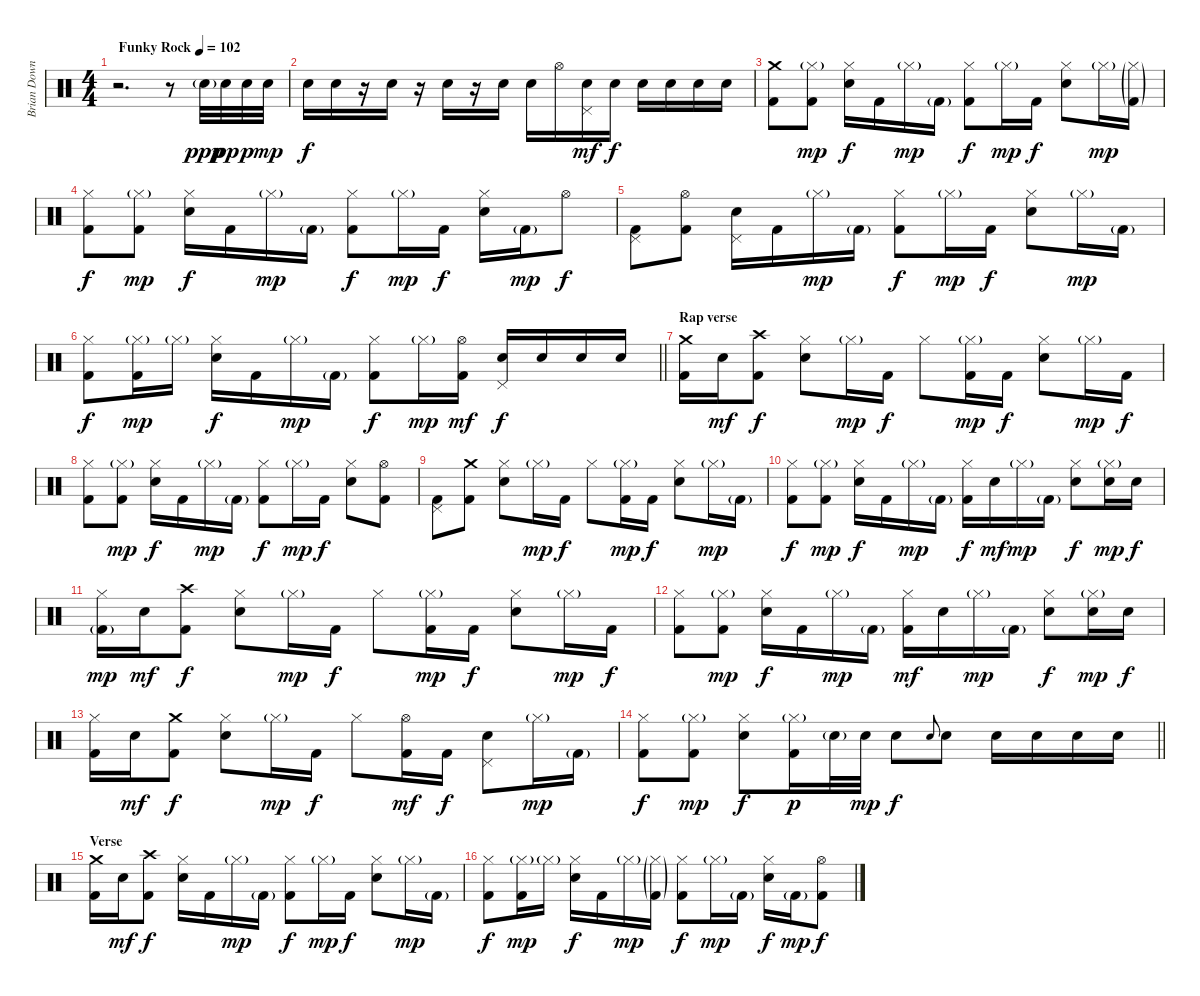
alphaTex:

\track ("Brian Downey" "Brian Down") {instrument percussion}
\staff {score}
\articulation defaults
\ts (4 4)
\tempo (102 "Funky Rock")
\clef neutral
\ks c
r.2{d dy ppp} r.8 "Electric Snare (hit)"{g}.32 "Electric Snare (hit)".32{dy pp} "Electric Snare (hit)".32{dy p} "Electric Snare (hit)".32{dy mp} |
"Electric Snare (hit)".16{dy f} "Electric Snare (hit)".16 r.16 "Electric Snare (hit)".16 r.16 "Electric Snare (hit)".16 r.16 "Electric Snare (hit)".16 "Electric Snare (hit)".16 "Hi-Hat (open)".16 ("Pedal Hi-Hat (hit)" "Electric Snare (hit)").16{dy mf} "Electric Snare (hit)".16{dy f} "Electric Snare (hit)".16 "Electric Snare (hit)".16 "Electric Snare (hit)".16 "Electric Snare (hit)".16 |
("Crash medium (hit)" "Kick (hit) 2").8 ("Hi-Hat (closed)"{g} "Kick (hit) 2").8{dy mp} ("Hi-Hat (closed)" "Electric Snare (hit)").16{dy f} "Kick (hit) 2".16 "Hi-Hat (closed)"{g}.16{dy mp} "Kick (hit) 2"{g}.16 ("Hi-Hat (closed)" "Kick (hit) 2").8{dy f} "Hi-Hat (closed)"{g}.16{dy mp} "Kick (hit) 2".16{dy f} ("Hi-Hat (closed)" "Electric Snare (hit)").8 "Hi-Hat (closed)"{g}.16{dy mp} ("Hi-Hat (closed)"{g} "Kick (hit) 2"{g}).16 |
("Hi-Hat (closed)" "Kick (hit) 2").8{dy f} ("Hi-Hat (closed)"{g} "Kick (hit) 2").8{dy mp} ("Hi-Hat (closed)" "Electric Snare (hit)").16{dy f} "Kick (hit) 2".16 "Hi-Hat (closed)"{g}.16{dy mp} "Kick (hit) 2"{g}.16 ("Hi-Hat (closed)" "Kick (hit) 2").8{dy f} "Hi-Hat (closed)"{g}.16{dy mp} "Kick (hit) 2".16{dy f} ("Hi-Hat (closed)" "Electric Snare (hit)").16 "Kick (hit) 2"{g}.16{dy mp} "Hi-Hat (open)".8{dy f} |
("Pedal Hi-Hat (hit)" "Kick (hit) 2").8 ("Hi-Hat (open)" "Kick (hit) 2").8 ("Pedal Hi-Hat (hit)" "Electric Snare (hit)").16 "Kick (hit) 2".16 "Hi-Hat (closed)"{g}.16{dy mp} "Kick (hit) 2"{g}.16 ("Hi-Hat (closed)" "Kick (hit) 2").8{dy f} "Hi-Hat (closed)"{g}.16{dy mp} "Kick (hit) 2".16{dy f} ("Hi-Hat (closed)" "Electric Snare (hit)").8 "Hi-Hat (closed)"{g}.16{dy mp} "Kick (hit) 2"{g}.16 |
\barLineRight lightlight
("Hi-Hat (closed)" "Kick (hit) 2").8{dy f} ("Hi-Hat (closed)"{g} "Kick (hit) 2").16{dy mp} "Hi-Hat (closed)"{g}.16 ("Hi-Hat (closed)" "Electric Snare (hit)").16{dy f} "Kick (hit) 2".16 "Hi-Hat (closed)"{g}.16{dy mp} "Kick (hit) 2"{g}.16 ("Hi-Hat (closed)" "Kick (hit) 2").8{dy f} "Hi-Hat (closed)"{g}.16{dy mp} ("Hi-Hat (open)" "Kick (hit) 2").16{dy mf} ("Pedal Hi-Hat (hit)" "Electric Snare (hit)").16{dy f} "Electric Snare (hit)".16 "Electric Snare (hit)".16 "Electric Snare (hit)".16 |
\section ("" "Rap verse")
("Crash medium (hit)" "Kick (hit) 2").16 "Electric Snare (hit)".16{dy mf} ("Crash high (hit)" "Kick (hit) 2").8{dy f} ("Hi-Hat (closed)" "Electric Snare (hit)").8 "Hi-Hat (closed)"{g}.16{dy mp} "Kick (hit) 2".16{dy f} "Hi-Hat (closed)".8 ("Hi-Hat (closed)"{g} "Kick (hit) 2").16{dy mp} "Kick (hit) 2".16{dy f} ("Hi-Hat (closed)" "Electric Snare (hit)").8 "Hi-Hat (closed)"{g}.16{dy mp} "Kick (hit) 2".16{dy f} |
("Hi-Hat (closed)" "Kick (hit) 2").8 ("Hi-Hat (closed)"{g} "Kick (hit) 2").8{dy mp} ("Hi-Hat (closed)" "Electric Snare (hit)").16{dy f} "Kick (hit) 2".16 "Hi-Hat (closed)"{g}.16{dy mp} "Kick (hit) 2"{g}.16 ("Hi-Hat (closed)" "Kick (hit) 2").8{dy f} "Hi-Hat (closed)"{g}.16{dy mp} "Kick (hit) 2".16{dy f} ("Hi-Hat (closed)" "Electric Snare (hit)").8 ("Hi-Hat (open)" "Kick (hit) 2").8 |
("Pedal Hi-Hat (hit)" "Kick (hit) 2").8 ("Crash medium (hit)" "Kick (hit) 2").8 ("Hi-Hat (closed)" "Electric Snare (hit)").8 "Hi-Hat (closed)"{g}.16{dy mp} "Kick (hit) 2".16{dy f} "Hi-Hat (closed)".8 ("Hi-Hat (closed)"{g} "Kick (hit) 2").16{dy mp} "Kick (hit) 2".16{dy f} ("Hi-Hat (closed)" "Electric Snare (hit)").8 "Hi-Hat (closed)"{g}.16{dy mp} "Kick (hit) 2"{g}.16 |
("Hi-Hat (closed)" "Kick (hit) 2").8{dy f} ("Hi-Hat (closed)"{g} "Kick (hit) 2").8{dy mp} ("Hi-Hat (closed)" "Electric Snare (hit)").16{dy f} "Kick (hit) 2".16 "Hi-Hat (closed)"{g}.16{dy mp} "Kick (hit) 2"{g}.16 ("Hi-Hat (closed)" "Kick (hit) 2").16{dy f} "Electric Snare (hit)".16{dy mf} "Hi-Hat (closed)"{g}.16{dy mp} "Kick (hit) 2"{g}.16 ("Hi-Hat (closed)" "Electric Snare (hit)").8{dy f} ("Hi-Hat (closed)"{g} "Electric Snare (hit)").16{dy mp} "Electric Snare (hit)".16{dy f} |
("Hi-Hat (closed)" "Kick (hit) 2"{g}).16{dy mp} "Electric Snare (hit)".16{dy mf} ("Crash high (hit)" "Kick (hit) 2").8{dy f} ("Hi-Hat (closed)" "Electric Snare (hit)").8 "Hi-Hat (closed)"{g}.16{dy mp} "Kick (hit) 2".16{dy f} "Hi-Hat (closed)".8 ("Hi-Hat (closed)"{g} "Kick (hit) 2").16{dy mp} "Kick (hit) 2".16{dy f} ("Hi-Hat (closed)" "Electric Snare (hit)").8 "Hi-Hat (closed)"{g}.16{dy mp} "Kick (hit) 2".16{dy f} |
("Hi-Hat (closed)" "Kick (hit) 2").8 ("Hi-Hat (closed)"{g} "Kick (hit) 2").8{dy mp} ("Hi-Hat (closed)" "Electric Snare (hit)").16{dy f} "Kick (hit) 2".16 "Hi-Hat (closed)"{g}.16{dy mp} "Kick (hit) 2"{g}.16 ("Hi-Hat (closed)" "Kick (hit) 2").16{dy mf} "Electric Snare (hit)".16 "Hi-Hat (closed)"{g}.16{dy mp} "Kick (hit) 2"{g}.16 ("Hi-Hat (closed)" "Electric Snare (hit)").8{dy f} ("Hi-Hat (closed)"{g} "Electric Snare (hit)").16{dy mp} "Electric Snare (hit)".16{dy f} |
("Hi-Hat (closed)" "Kick (hit) 2").16 "Electric Snare (hit)".16{dy mf} ("Crash medium (hit)" "Kick (hit) 2").8{dy f} ("Hi-Hat (closed)" "Electric Snare (hit)").8 "Hi-Hat (closed)"{g}.16{dy mp} "Kick (hit) 2".16{dy f} "Hi-Hat (closed)".8 ("Hi-Hat (open)" "Kick (hit) 2").16{dy mf} "Kick (hit) 2".16{dy f} ("Pedal Hi-Hat (hit)" "Electric Snare (hit)").8 "Hi-Hat (closed)"{g}.16{dy mp} "Kick (hit) 2"{g}.16 |
\barLineRight lightlight
("Hi-Hat (closed)" "Kick (hit) 2").8{dy f} ("Hi-Hat (closed)"{g} "Kick (hit) 2").8{dy mp} ("Hi-Hat (closed)" "Electric Snare (hit)").8{dy f} ("Hi-Hat (closed)"{g} "Kick (hit) 2").16{dy p} "Electric Snare (hit)"{g}.32 "Electric Snare (hit)".32{dy mp} "Electric Snare (hit)".8{dy f} "Electric Snare (hit)".8{gr onbeat} "Electric Snare (hit)".8 "Electric Snare (hit)".16 "Electric Snare (hit)".16 "Electric Snare (hit)".16 "Electric Snare (hit)".16 |
\section ("" "Verse")
("Crash medium (hit)" "Kick (hit) 2").16 "Electric Snare (hit)".16{dy mf} ("Crash high (hit)" "Kick (hit) 2").8{dy f} ("Hi-Hat (closed)" "Electric Snare (hit)").16 "Kick (hit) 2".16 "Hi-Hat (closed)"{g}.16{dy mp} "Kick (hit) 2"{g}.16 ("Hi-Hat (closed)" "Kick (hit) 2").8{dy f} "Hi-Hat (closed)"{g}.16{dy mp} "Kick (hit) 2".16{dy f} ("Hi-Hat (closed)" "Electric Snare (hit)").8 "Hi-Hat (closed)"{g}.16{dy mp} "Kick (hit) 2"{g}.16 |
("Hi-Hat (closed)" "Kick (hit) 2").8{dy f} ("Hi-Hat (closed)"{g} "Kick (hit) 2").16{dy mp} "Hi-Hat (closed)"{g}.16 ("Hi-Hat (closed)" "Electric Snare (hit)").16{dy f} "Kick (hit) 2".16 "Hi-Hat (closed)"{g}.16{dy mp} ("Hi-Hat (closed)"{g} "Kick (hit) 2"{g}).16 ("Hi-Hat (closed)" "Kick (hit) 2").8{dy f} "Hi-Hat (closed)"{g}.16{dy mp} "Kick (hit) 2"{g}.16 ("Hi-Hat (closed)" "Electric Snare (hit)").16{dy f} "Kick (hit) 2"{g}.16{dy mp} ("Hi-Hat (open)" "Kick (hit) 2").8{dy f}
